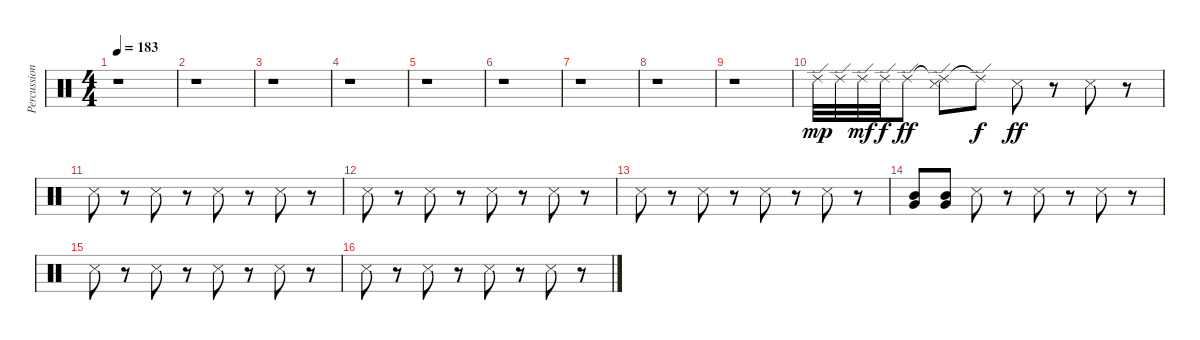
\track ("Percussion" "Percussion") {instrument percussion}
\staff {score}
\articulation defaults
\ts (4 4)
\tempo 183
\clef neutral
\ks c
r.1{dy mp} |
r.1 |
r.1 |
r.1 |
r.1 |
r.1 |
r.1 |
r.1 |
r.1 |
"Ride (edge) 2".32 "Ride (edge) 2".32 "Ride (edge) 2".32{dy mf} "Ride (edge) 2".32{dy f} "Ride (edge) 2".8{dy ff} ("Ride (edge) 2"{t} "Snare (side stick) 3").8 "Ride (edge) 2"{t}.8{dy f} "Snare (side stick) 3".8{dy ff} r.8 "Snare (side stick) 3".8 r.8 |
"Snare (side stick) 3".8 r.8 "Snare (side stick) 3".8 r.8 "Snare (side stick) 3".8 r.8 "Snare (side stick) 3".8 r.8 |
"Snare (side stick) 3".8 r.8 "Snare (side stick) 3".8 r.8 "Snare (side stick) 3".8 r.8 "Snare (side stick) 3".8 r.8 |
"Snare (side stick) 3".8 r.8 "Snare (side stick) 3".8 r.8 "Snare (side stick) 3".8 r.8 "Snare (side stick) 3".8 r.8 |
("Very Low Tom (hit)" "Mid Tom (hit)").8 ("Very Low Tom (hit)" "Mid Tom (hit)").8 "Snare (side stick) 3".8 r.8 "Snare (side stick) 3".8 r.8 "Snare (side stick) 3".8 r.8 |
"Snare (side stick) 3".8 r.8 "Snare (side stick) 3".8 r.8 "Snare (side stick) 3".8 r.8 "Snare (side stick) 3".8 r.8 |
"Snare (side stick) 3".8 r.8 "Snare (side stick) 3".8 r.8 "Snare (side stick) 3".8 r.8 "Snare (side stick) 3".8 r.8
